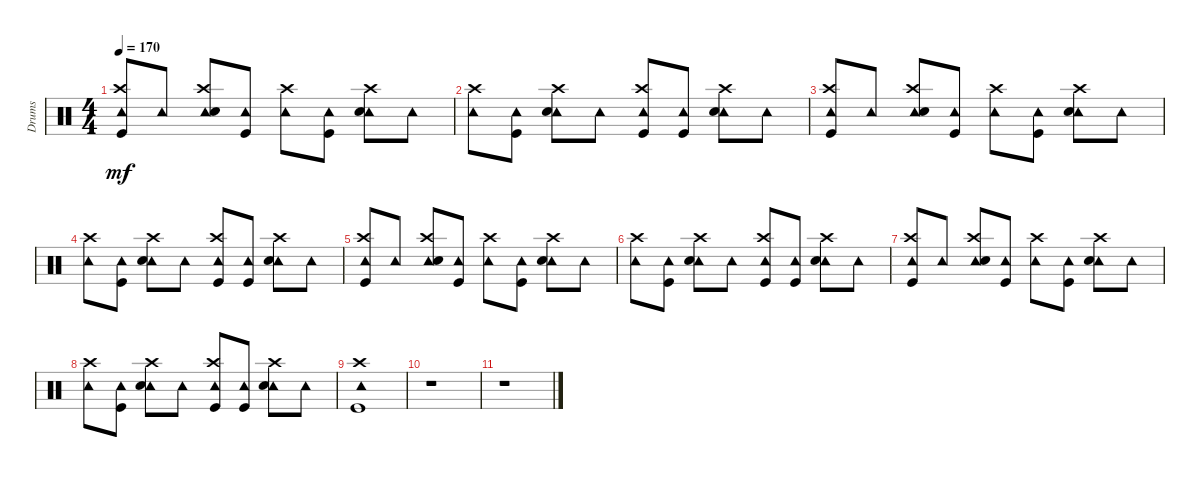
\track ("Drums" "Drums") {instrument percussion}
\staff {score}
\articulation defaults
\ts (4 4)
\tempo 170
\clef neutral
\ks c
("Tambourine (hit)" "Crash high (hit)" "Kick (hit)").8{dy mf} "Tambourine (hit)".8 ("Tambourine (hit)" "Crash high (hit)" "Snare (hit) 2").8 ("Tambourine (hit)" "Kick (hit)").8 ("Tambourine (hit)" "Crash high (hit)").8 ("Tambourine (hit)" "Kick (hit)").8 ("Tambourine (hit)" "Crash high (hit)" "Snare (hit) 2").8 "Tambourine (hit)".8 |
("Tambourine (hit)" "Crash high (hit)").8 ("Tambourine (hit)" "Kick (hit)").8 ("Tambourine (hit)" "Crash high (hit)" "Snare (hit) 2").8 "Tambourine (hit)".8 ("Tambourine (hit)" "Crash high (hit)" "Kick (hit)").8 ("Tambourine (hit)" "Kick (hit)").8 ("Tambourine (hit)" "Crash high (hit)" "Snare (hit) 2").8 "Tambourine (hit)".8 |
("Tambourine (hit)" "Crash high (hit)" "Kick (hit)").8 "Tambourine (hit)".8 ("Tambourine (hit)" "Crash high (hit)" "Snare (hit) 2").8 ("Tambourine (hit)" "Kick (hit)").8 ("Tambourine (hit)" "Crash high (hit)").8 ("Tambourine (hit)" "Kick (hit)").8 ("Tambourine (hit)" "Crash high (hit)" "Snare (hit) 2").8 "Tambourine (hit)".8 |
("Tambourine (hit)" "Crash high (hit)").8 ("Tambourine (hit)" "Kick (hit)").8 ("Tambourine (hit)" "Crash high (hit)" "Snare (hit) 2").8 "Tambourine (hit)".8 ("Tambourine (hit)" "Crash high (hit)" "Kick (hit)").8 ("Tambourine (hit)" "Kick (hit)").8 ("Tambourine (hit)" "Crash high (hit)" "Snare (hit) 2").8 "Tambourine (hit)".8 |
("Tambourine (hit)" "Crash high (hit)" "Kick (hit)").8 "Tambourine (hit)".8 ("Tambourine (hit)" "Crash high (hit)" "Snare (hit) 2").8 ("Tambourine (hit)" "Kick (hit)").8 ("Tambourine (hit)" "Crash high (hit)").8 ("Tambourine (hit)" "Kick (hit)").8 ("Tambourine (hit)" "Crash high (hit)" "Snare (hit) 2").8 "Tambourine (hit)".8 |
("Tambourine (hit)" "Crash high (hit)").8 ("Tambourine (hit)" "Kick (hit)").8 ("Tambourine (hit)" "Crash high (hit)" "Snare (hit) 2").8 "Tambourine (hit)".8 ("Tambourine (hit)" "Crash high (hit)" "Kick (hit)").8 ("Tambourine (hit)" "Kick (hit)").8 ("Tambourine (hit)" "Crash high (hit)" "Snare (hit) 2").8 "Tambourine (hit)".8 |
("Tambourine (hit)" "Crash high (hit)" "Kick (hit)").8 "Tambourine (hit)".8 ("Tambourine (hit)" "Crash high (hit)" "Snare (hit) 2").8 ("Tambourine (hit)" "Kick (hit)").8 ("Tambourine (hit)" "Crash high (hit)").8 ("Tambourine (hit)" "Kick (hit)").8 ("Tambourine (hit)" "Crash high (hit)" "Snare (hit) 2").8 "Tambourine (hit)".8 |
("Tambourine (hit)" "Crash high (hit)").8 ("Tambourine (hit)" "Kick (hit)").8 ("Tambourine (hit)" "Crash high (hit)" "Snare (hit) 2").8 "Tambourine (hit)".8 ("Tambourine (hit)" "Crash high (hit)" "Kick (hit)").8 ("Tambourine (hit)" "Kick (hit)").8 ("Tambourine (hit)" "Crash high (hit)" "Snare (hit) 2").8 "Tambourine (hit)".8 |
("Tambourine (hit)" "Crash high (hit)" "Kick (hit)").1 |
r.1 |
r.1
